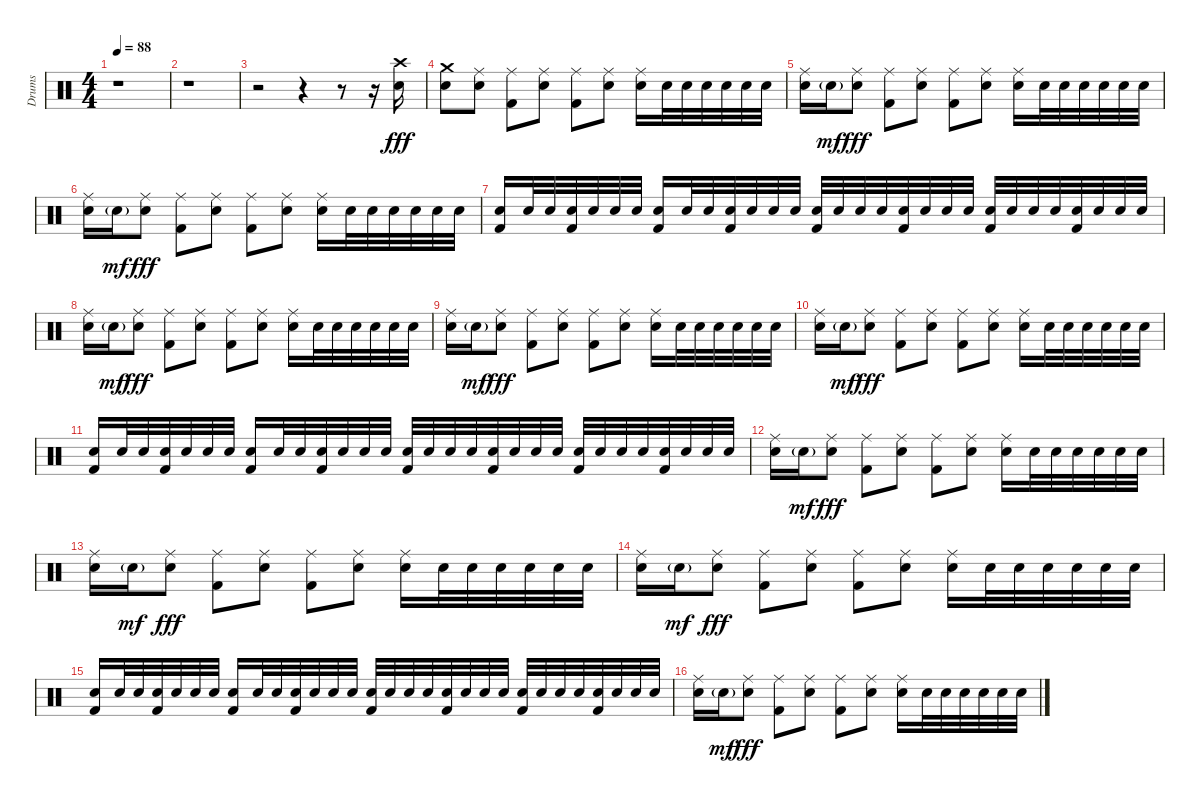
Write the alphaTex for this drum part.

\track ("Drums" "Drums") {instrument percussion}
\staff {score}
\articulation defaults
\ts (4 4)
\tempo 88
\clef neutral
\ks c
r.1{dy f} |
r.1 |
r.2 r.4 r.8 r.16 ("Crash high (hit)" "Electric Snare (hit)").16{dy fff} |
("Crash medium (hit)" "Electric Snare (hit)").8 ("Ride (middle)" "Electric Snare (hit)").8 ("Ride (middle)" "Kick (hit) 2").8 ("Ride (middle)" "Electric Snare (hit)").8 ("Ride (middle)" "Kick (hit) 2").8 ("Ride (middle)" "Electric Snare (hit)").8 ("Ride (middle)" "Electric Snare (hit)").16 "Electric Snare (hit)".32 "Electric Snare (hit)".32 "Electric Snare (hit)".32 "Electric Snare (hit)".32 "Electric Snare (hit)".32 "Electric Snare (hit)".32 |
("Ride (middle)" "Electric Snare (hit)").16 "Electric Snare (hit)"{g}.16{dy mf} ("Ride (middle)" "Electric Snare (hit)").8{dy fff} ("Ride (middle)" "Kick (hit) 2").8 ("Ride (middle)" "Electric Snare (hit)").8 ("Ride (middle)" "Kick (hit) 2").8 ("Ride (middle)" "Electric Snare (hit)").8 ("Ride (middle)" "Electric Snare (hit)").16 "Electric Snare (hit)".32 "Electric Snare (hit)".32 "Electric Snare (hit)".32 "Electric Snare (hit)".32 "Electric Snare (hit)".32 "Electric Snare (hit)".32 |
("Ride (middle)" "Electric Snare (hit)").16 "Electric Snare (hit)"{g}.16{dy mf} ("Ride (middle)" "Electric Snare (hit)").8{dy fff} ("Ride (middle)" "Kick (hit) 2").8 ("Ride (middle)" "Electric Snare (hit)").8 ("Ride (middle)" "Kick (hit) 2").8 ("Ride (middle)" "Electric Snare (hit)").8 ("Ride (middle)" "Electric Snare (hit)").16 "Electric Snare (hit)".32 "Electric Snare (hit)".32 "Electric Snare (hit)".32 "Electric Snare (hit)".32 "Electric Snare (hit)".32 "Electric Snare (hit)".32 |
("Kick (hit) 2" "Electric Snare (hit)").16 "Electric Snare (hit)".32 "Electric Snare (hit)".32 ("Kick (hit) 2" "Electric Snare (hit)").32 "Electric Snare (hit)".32 "Electric Snare (hit)".32 "Electric Snare (hit)".32 ("Kick (hit) 2" "Electric Snare (hit)").16 "Electric Snare (hit)".32 "Electric Snare (hit)".32 ("Kick (hit) 2" "Electric Snare (hit)").32 "Electric Snare (hit)".32 "Electric Snare (hit)".32 "Electric Snare (hit)".32 ("Kick (hit) 2" "Electric Snare (hit)").32 "Electric Snare (hit)".32 "Electric Snare (hit)".32 "Electric Snare (hit)".32 ("Kick (hit) 2" "Electric Snare (hit)").32 "Electric Snare (hit)".32 "Electric Snare (hit)".32 "Electric Snare (hit)".32 ("Kick (hit) 2" "Electric Snare (hit)").32 "Electric Snare (hit)".32 "Electric Snare (hit)".32 "Electric Snare (hit)".32 ("Kick (hit) 2" "Electric Snare (hit)").32 "Electric Snare (hit)".32 "Electric Snare (hit)".32 "Electric Snare (hit)".32 |
("Ride (middle)" "Electric Snare (hit)").16 "Electric Snare (hit)"{g}.16{dy mf} ("Ride (middle)" "Electric Snare (hit)").8{dy fff} ("Ride (middle)" "Kick (hit) 2").8 ("Ride (middle)" "Electric Snare (hit)").8 ("Ride (middle)" "Kick (hit) 2").8 ("Ride (middle)" "Electric Snare (hit)").8 ("Ride (middle)" "Electric Snare (hit)").16 "Electric Snare (hit)".32 "Electric Snare (hit)".32 "Electric Snare (hit)".32 "Electric Snare (hit)".32 "Electric Snare (hit)".32 "Electric Snare (hit)".32 |
("Ride (middle)" "Electric Snare (hit)").16 "Electric Snare (hit)"{g}.16{dy mf} ("Ride (middle)" "Electric Snare (hit)").8{dy fff} ("Ride (middle)" "Kick (hit) 2").8 ("Ride (middle)" "Electric Snare (hit)").8 ("Ride (middle)" "Kick (hit) 2").8 ("Ride (middle)" "Electric Snare (hit)").8 ("Ride (middle)" "Electric Snare (hit)").16 "Electric Snare (hit)".32 "Electric Snare (hit)".32 "Electric Snare (hit)".32 "Electric Snare (hit)".32 "Electric Snare (hit)".32 "Electric Snare (hit)".32 |
("Ride (middle)" "Electric Snare (hit)").16 "Electric Snare (hit)"{g}.16{dy mf} ("Ride (middle)" "Electric Snare (hit)").8{dy fff} ("Ride (middle)" "Kick (hit) 2").8 ("Ride (middle)" "Electric Snare (hit)").8 ("Ride (middle)" "Kick (hit) 2").8 ("Ride (middle)" "Electric Snare (hit)").8 ("Ride (middle)" "Electric Snare (hit)").16 "Electric Snare (hit)".32 "Electric Snare (hit)".32 "Electric Snare (hit)".32 "Electric Snare (hit)".32 "Electric Snare (hit)".32 "Electric Snare (hit)".32 |
("Kick (hit) 2" "Electric Snare (hit)").16 "Electric Snare (hit)".32 "Electric Snare (hit)".32 ("Kick (hit) 2" "Electric Snare (hit)").32 "Electric Snare (hit)".32 "Electric Snare (hit)".32 "Electric Snare (hit)".32 ("Kick (hit) 2" "Electric Snare (hit)").16 "Electric Snare (hit)".32 "Electric Snare (hit)".32 ("Kick (hit) 2" "Electric Snare (hit)").32 "Electric Snare (hit)".32 "Electric Snare (hit)".32 "Electric Snare (hit)".32 ("Kick (hit) 2" "Electric Snare (hit)").32 "Electric Snare (hit)".32 "Electric Snare (hit)".32 "Electric Snare (hit)".32 ("Kick (hit) 2" "Electric Snare (hit)").32 "Electric Snare (hit)".32 "Electric Snare (hit)".32 "Electric Snare (hit)".32 ("Kick (hit) 2" "Electric Snare (hit)").32 "Electric Snare (hit)".32 "Electric Snare (hit)".32 "Electric Snare (hit)".32 ("Kick (hit) 2" "Electric Snare (hit)").32 "Electric Snare (hit)".32 "Electric Snare (hit)".32 "Electric Snare (hit)".32 |
("Ride (middle)" "Electric Snare (hit)").16 "Electric Snare (hit)"{g}.16{dy mf} ("Ride (middle)" "Electric Snare (hit)").8{dy fff} ("Ride (middle)" "Kick (hit) 2").8 ("Ride (middle)" "Electric Snare (hit)").8 ("Ride (middle)" "Kick (hit) 2").8 ("Ride (middle)" "Electric Snare (hit)").8 ("Ride (middle)" "Electric Snare (hit)").16 "Electric Snare (hit)".32 "Electric Snare (hit)".32 "Electric Snare (hit)".32 "Electric Snare (hit)".32 "Electric Snare (hit)".32 "Electric Snare (hit)".32 |
("Ride (middle)" "Electric Snare (hit)").16 "Electric Snare (hit)"{g}.16{dy mf} ("Ride (middle)" "Electric Snare (hit)").8{dy fff} ("Ride (middle)" "Kick (hit) 2").8 ("Ride (middle)" "Electric Snare (hit)").8 ("Ride (middle)" "Kick (hit) 2").8 ("Ride (middle)" "Electric Snare (hit)").8 ("Ride (middle)" "Electric Snare (hit)").16 "Electric Snare (hit)".32 "Electric Snare (hit)".32 "Electric Snare (hit)".32 "Electric Snare (hit)".32 "Electric Snare (hit)".32 "Electric Snare (hit)".32 |
("Ride (middle)" "Electric Snare (hit)").16 "Electric Snare (hit)"{g}.16{dy mf} ("Ride (middle)" "Electric Snare (hit)").8{dy fff} ("Ride (middle)" "Kick (hit) 2").8 ("Ride (middle)" "Electric Snare (hit)").8 ("Ride (middle)" "Kick (hit) 2").8 ("Ride (middle)" "Electric Snare (hit)").8 ("Ride (middle)" "Electric Snare (hit)").16 "Electric Snare (hit)".32 "Electric Snare (hit)".32 "Electric Snare (hit)".32 "Electric Snare (hit)".32 "Electric Snare (hit)".32 "Electric Snare (hit)".32 |
("Kick (hit) 2" "Electric Snare (hit)").16 "Electric Snare (hit)".32 "Electric Snare (hit)".32 ("Kick (hit) 2" "Electric Snare (hit)").32 "Electric Snare (hit)".32 "Electric Snare (hit)".32 "Electric Snare (hit)".32 ("Kick (hit) 2" "Electric Snare (hit)").16 "Electric Snare (hit)".32 "Electric Snare (hit)".32 ("Kick (hit) 2" "Electric Snare (hit)").32 "Electric Snare (hit)".32 "Electric Snare (hit)".32 "Electric Snare (hit)".32 ("Kick (hit) 2" "Electric Snare (hit)").32 "Electric Snare (hit)".32 "Electric Snare (hit)".32 "Electric Snare (hit)".32 ("Kick (hit) 2" "Electric Snare (hit)").32 "Electric Snare (hit)".32 "Electric Snare (hit)".32 "Electric Snare (hit)".32 ("Kick (hit) 2" "Electric Snare (hit)").32 "Electric Snare (hit)".32 "Electric Snare (hit)".32 "Electric Snare (hit)".32 ("Kick (hit) 2" "Electric Snare (hit)").32 "Electric Snare (hit)".32 "Electric Snare (hit)".32 "Electric Snare (hit)".32 |
("Ride (middle)" "Electric Snare (hit)").16 "Electric Snare (hit)"{g}.16{dy mf} ("Ride (middle)" "Electric Snare (hit)").8{dy fff} ("Ride (middle)" "Kick (hit) 2").8 ("Ride (middle)" "Electric Snare (hit)").8 ("Ride (middle)" "Kick (hit) 2").8 ("Ride (middle)" "Electric Snare (hit)").8 ("Ride (middle)" "Electric Snare (hit)").16 "Electric Snare (hit)".32 "Electric Snare (hit)".32 "Electric Snare (hit)".32 "Electric Snare (hit)".32 "Electric Snare (hit)".32 "Electric Snare (hit)".32
